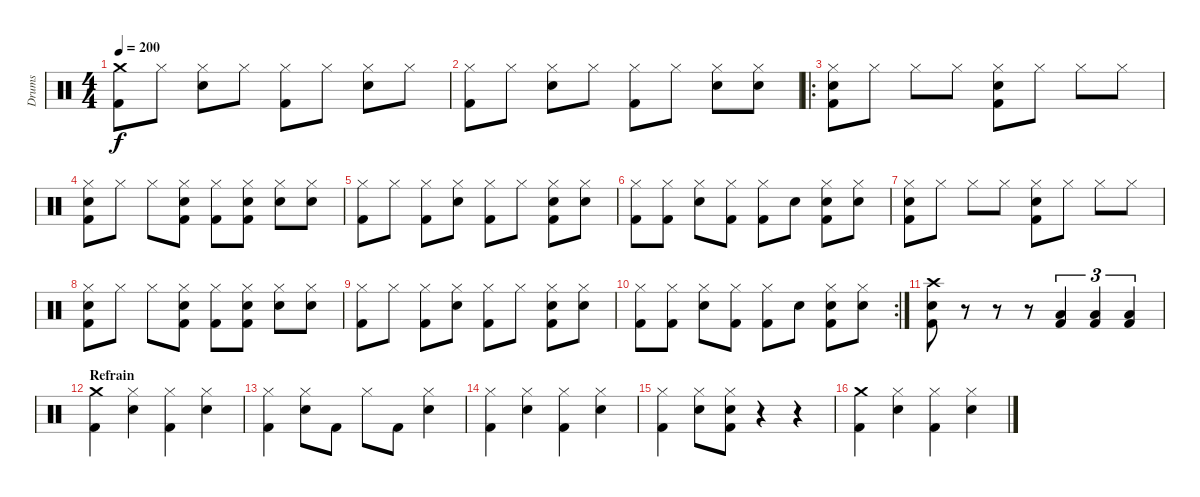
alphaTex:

\track ("Drums" "Drums") {instrument percussion}
\staff {score}
\articulation defaults
\ts (4 4)
\tempo 200
\clef neutral
\ks c
("Crash medium (hit)" "Kick (hit) 2").8{dy f} "Hi-Hat (closed)".8 ("Hi-Hat (closed)" "Snare (hit) 2").8 "Hi-Hat (closed)".8 ("Hi-Hat (closed)" "Kick (hit) 2").8 "Hi-Hat (closed)".8 ("Hi-Hat (closed)" "Snare (hit) 2").8 "Hi-Hat (closed)".8 |
("Hi-Hat (closed)" "Kick (hit) 2").8 "Hi-Hat (closed)".8 ("Hi-Hat (closed)" "Snare (hit) 2").8 "Hi-Hat (closed)".8 ("Hi-Hat (closed)" "Kick (hit) 2").8 "Hi-Hat (closed)".8 ("Hi-Hat (closed)" "Snare (hit) 2").8 ("Hi-Hat (closed)" "Snare (hit) 2").8 |
\ro
\section ("" "")
("Hi-Hat (closed)" "Snare (hit) 2" "Kick (hit) 2").8 "Hi-Hat (closed)".8 "Hi-Hat (closed)".8 "Hi-Hat (closed)".8 ("Hi-Hat (closed)" "Snare (hit) 2" "Kick (hit) 2").8 "Hi-Hat (closed)".8 "Hi-Hat (closed)".8 "Hi-Hat (closed)".8 |
("Hi-Hat (closed)" "Snare (hit) 2" "Kick (hit) 2").8 "Hi-Hat (closed)".8 "Hi-Hat (closed)".8 ("Hi-Hat (closed)" "Snare (hit) 2" "Kick (hit) 2").8 ("Hi-Hat (closed)" "Kick (hit) 2").8 ("Hi-Hat (closed)" "Snare (hit) 2" "Kick (hit) 2").8 ("Hi-Hat (closed)" "Snare (hit) 2").8 ("Hi-Hat (closed)" "Snare (hit) 2").8 |
("Hi-Hat (closed)" "Kick (hit) 2").8 "Hi-Hat (closed)".8 ("Hi-Hat (closed)" "Kick (hit) 2").8 ("Hi-Hat (closed)" "Snare (hit) 2").8 ("Hi-Hat (closed)" "Kick (hit) 2").8 "Hi-Hat (closed)".8 ("Hi-Hat (closed)" "Snare (hit) 2" "Kick (hit) 2").8 ("Hi-Hat (closed)" "Snare (hit) 2").8 |
("Hi-Hat (closed)" "Kick (hit) 2").8 ("Hi-Hat (closed)" "Kick (hit) 2").8 ("Hi-Hat (closed)" "Snare (hit) 2").8 ("Hi-Hat (closed)" "Kick (hit) 2").8 ("Hi-Hat (closed)" "Kick (hit) 2").8 "Snare (hit) 2".8 ("Hi-Hat (closed)" "Snare (hit) 2" "Kick (hit) 2").8 ("Hi-Hat (closed)" "Snare (hit) 2").8 |
("Hi-Hat (closed)" "Snare (hit) 2" "Kick (hit) 2").8 "Hi-Hat (closed)".8 "Hi-Hat (closed)".8 "Hi-Hat (closed)".8 ("Hi-Hat (closed)" "Snare (hit) 2" "Kick (hit) 2").8 "Hi-Hat (closed)".8 "Hi-Hat (closed)".8 "Hi-Hat (closed)".8 |
("Hi-Hat (closed)" "Snare (hit) 2" "Kick (hit) 2").8 "Hi-Hat (closed)".8 "Hi-Hat (closed)".8 ("Hi-Hat (closed)" "Snare (hit) 2" "Kick (hit) 2").8 ("Hi-Hat (closed)" "Kick (hit) 2").8 ("Hi-Hat (closed)" "Snare (hit) 2" "Kick (hit) 2").8 ("Hi-Hat (closed)" "Snare (hit) 2").8 ("Hi-Hat (closed)" "Snare (hit) 2").8 |
("Hi-Hat (closed)" "Kick (hit) 2").8 "Hi-Hat (closed)".8 ("Hi-Hat (closed)" "Kick (hit) 2").8 ("Hi-Hat (closed)" "Snare (hit) 2").8 ("Hi-Hat (closed)" "Kick (hit) 2").8 "Hi-Hat (closed)".8 ("Hi-Hat (closed)" "Snare (hit) 2" "Kick (hit) 2").8 ("Hi-Hat (closed)" "Snare (hit) 2").8 |
\rc 2
("Hi-Hat (closed)" "Kick (hit) 2").8 ("Hi-Hat (closed)" "Kick (hit) 2").8 ("Hi-Hat (closed)" "Snare (hit) 2").8 ("Hi-Hat (closed)" "Kick (hit) 2").8 ("Hi-Hat (closed)" "Kick (hit) 2").8 "Snare (hit) 2".8 ("Hi-Hat (closed)" "Snare (hit) 2" "Kick (hit) 2").8 ("Hi-Hat (closed)" "Snare (hit) 2").8 |
("Crash high (hit)" "Snare (hit) 2" "Kick (hit) 2").8 r.8 r.8 r.8 ("Low Tom (hit)" "Kick (hit) 2").4{tu (3 2)} ("Low Tom (hit)" "Kick (hit) 2").4{tu (3 2)} ("Low Tom (hit)" "Kick (hit) 2").4{tu (3 2)} |
\section ("" "Refrain")
("Crash medium (hit)" "Kick (hit) 2").4 ("Hi-Hat (closed)" "Snare (hit) 2").4 ("Hi-Hat (closed)" "Kick (hit) 2").4 ("Hi-Hat (closed)" "Snare (hit) 2").4 |
("Hi-Hat (closed)" "Kick (hit) 2").4 ("Hi-Hat (closed)" "Snare (hit) 2").8 "Kick (hit) 2".8 "Hi-Hat (closed)".8 "Kick (hit) 2".8 ("Hi-Hat (closed)" "Snare (hit) 2").4 |
("Hi-Hat (closed)" "Kick (hit) 2").4 ("Hi-Hat (closed)" "Snare (hit) 2").4 ("Hi-Hat (closed)" "Kick (hit) 2").4 ("Hi-Hat (closed)" "Snare (hit) 2").4 |
("Hi-Hat (closed)" "Kick (hit) 2").4 ("Hi-Hat (closed)" "Snare (hit) 2").8 ("Hi-Hat (closed)" "Snare (hit) 2" "Kick (hit) 2").8 r.4 r.4 |
("Crash medium (hit)" "Kick (hit) 2").4 ("Hi-Hat (closed)" "Snare (hit) 2").4 ("Hi-Hat (closed)" "Kick (hit) 2").4 ("Hi-Hat (closed)" "Snare (hit) 2").4
